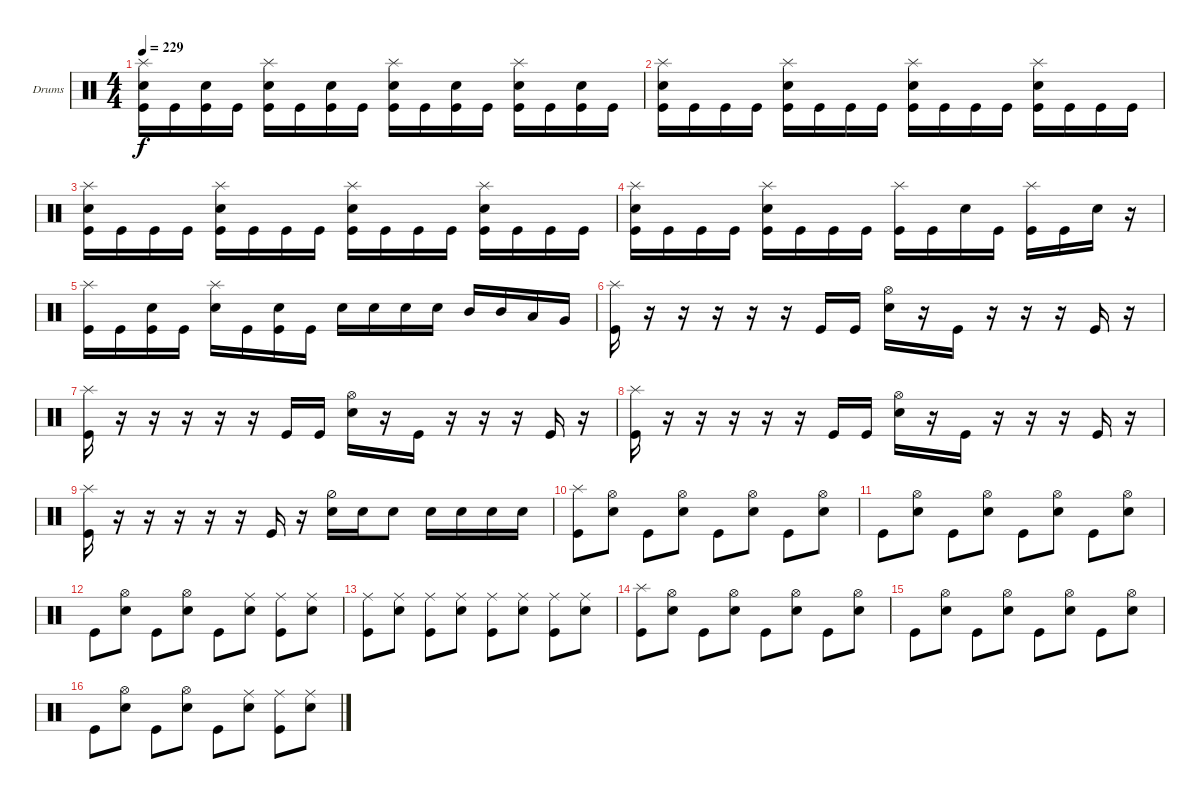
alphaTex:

\defaultSystemsLayout 4
\bracketExtendMode groupsimilarinstruments
\firstSystemTrackNameOrientation horizontal
\otherSystemsTrackNameOrientation horizontal
\track ("Drumkit" "Drums") {instrument percussion}
\staff {score}
\articulation defaults
\ts (4 4)
\tempo 229
\clef neutral
\ks c
("Snare (hit) 2" "Kick (hit)" "Splash (hit)").16{dy f} "Kick (hit)".16 ("Kick (hit)" "Snare (hit) 2").16 "Kick (hit)".16 ("Snare (hit) 2" "Kick (hit)" "Splash (hit)").16 "Kick (hit)".16 ("Kick (hit)" "Snare (hit) 2").16 "Kick (hit)".16 ("Snare (hit) 2" "Kick (hit)" "Splash (hit)").16 "Kick (hit)".16 ("Kick (hit)" "Snare (hit) 2").16 "Kick (hit)".16 ("Snare (hit) 2" "Kick (hit)" "Splash (hit)").16 "Kick (hit)".16 ("Kick (hit)" "Snare (hit) 2").16 "Kick (hit)".16 |
("Snare (hit) 2" "Kick (hit)" "Splash (hit)").16 "Kick (hit)".16 "Kick (hit)".16 "Kick (hit)".16 ("Snare (hit) 2" "Kick (hit)" "Splash (hit)").16 "Kick (hit)".16 "Kick (hit)".16 "Kick (hit)".16 ("Snare (hit) 2" "Kick (hit)" "Splash (hit)").16 "Kick (hit)".16 "Kick (hit)".16 "Kick (hit)".16 ("Snare (hit) 2" "Kick (hit)" "Splash (hit)").16 "Kick (hit)".16 "Kick (hit)".16 "Kick (hit)".16 |
("Snare (hit) 2" "Kick (hit)" "Splash (hit)").16 "Kick (hit)".16 "Kick (hit)".16 "Kick (hit)".16 ("Snare (hit) 2" "Kick (hit)" "Splash (hit)").16 "Kick (hit)".16 "Kick (hit)".16 "Kick (hit)".16 ("Snare (hit) 2" "Kick (hit)" "Splash (hit)").16 "Kick (hit)".16 "Kick (hit)".16 "Kick (hit)".16 ("Snare (hit) 2" "Kick (hit)" "Splash (hit)").16 "Kick (hit)".16 "Kick (hit)".16 "Kick (hit)".16 |
("Snare (hit) 2" "Kick (hit)" "Splash (hit)").16 "Kick (hit)".16 "Kick (hit)".16 "Kick (hit)".16 ("Snare (hit) 2" "Kick (hit)" "Splash (hit)").16 "Kick (hit)".16 "Kick (hit)".16 "Kick (hit)".16 ("Kick (hit)" "Splash (hit)").16 "Kick (hit)".16 "Snare (hit) 2".16 "Kick (hit)".16 ("Kick (hit)" "Splash (hit)").16 "Kick (hit)".16 "Snare (hit) 2".16 r.16 |
("Kick (hit)" "Splash (hit)").16 "Kick (hit)".16 ("Kick (hit)" "Snare (hit) 2").16 "Kick (hit)".16 ("Splash (hit)" "Snare (hit) 2").16 "Kick (hit)".16 ("Kick (hit)" "Snare (hit) 2").16 "Kick (hit)".16 "Snare (hit) 2".16 "Snare (hit) 2".16 "Snare (hit) 2".16 "Snare (hit) 2".16 "Mid Tom (hit)".16 "Mid Tom (hit)".16 "Low Tom (hit)".16 "Very Low Tom (hit)".16 |
("Kick (hit)" "Splash (hit)").16 r.16 r.16 r.16 r.16 r.16 "Kick (hit)".16 "Kick (hit)".16 ("Snare (hit) 2" "Hi-Hat (open)").16 r.16 "Kick (hit)".16 r.16 r.16 r.16 "Kick (hit)".16 r.16 |
("Kick (hit)" "Splash (hit)").16 r.16 r.16 r.16 r.16 r.16 "Kick (hit)".16 "Kick (hit)".16 ("Snare (hit) 2" "Hi-Hat (open)").16 r.16 "Kick (hit)".16 r.16 r.16 r.16 "Kick (hit)".16 r.16 |
("Kick (hit)" "Splash (hit)").16 r.16 r.16 r.16 r.16 r.16 "Kick (hit)".16 "Kick (hit)".16 ("Snare (hit) 2" "Hi-Hat (open)").16 r.16 "Kick (hit)".16 r.16 r.16 r.16 "Kick (hit)".16 r.16 |
("Kick (hit)" "Splash (hit)").16 r.16 r.16 r.16 r.16 r.16 "Kick (hit)".16 r.16 ("Snare (hit) 2" "Hi-Hat (half)").16 "Snare (hit) 2".16 "Snare (hit) 2".8 "Snare (hit) 2".16 "Snare (hit) 2".16 "Snare (hit) 2".16 "Snare (hit) 2".16 |
("Kick (hit)" "Splash (hit)").8 ("Snare (hit) 2" "Hi-Hat (open)").8 "Kick (hit)".8 ("Snare (hit) 2" "Hi-Hat (open)").8 "Kick (hit)".8 ("Snare (hit) 2" "Hi-Hat (open)").8 "Kick (hit)".8 ("Snare (hit) 2" "Hi-Hat (open)").8 |
"Kick (hit)".8 ("Snare (hit) 2" "Hi-Hat (open)").8 "Kick (hit)".8 ("Snare (hit) 2" "Hi-Hat (open)").8 "Kick (hit)".8 ("Snare (hit) 2" "Hi-Hat (open)").8 "Kick (hit)".8 ("Snare (hit) 2" "Hi-Hat (open)").8 |
"Kick (hit)".8 ("Snare (hit) 2" "Hi-Hat (open)").8 "Kick (hit)".8 ("Snare (hit) 2" "Hi-Hat (open)").8 "Kick (hit)".8 ("Snare (hit) 2" "Ride (middle)").8 ("Kick (hit)" "Ride (middle)").8 ("Snare (hit) 2" "Ride (middle)").8 |
("Kick (hit)" "Ride (middle)").8 ("Snare (hit) 2" "Ride (middle)").8 ("Kick (hit)" "Ride (middle)").8 ("Snare (hit) 2" "Ride (middle)").8 ("Kick (hit)" "Ride (middle)").8 ("Snare (hit) 2" "Ride (middle)").8 ("Kick (hit)" "Ride (middle)").8 ("Snare (hit) 2" "Ride (middle)").8 |
("Kick (hit)" "Splash (hit)").8 ("Snare (hit) 2" "Hi-Hat (open)").8 "Kick (hit)".8 ("Snare (hit) 2" "Hi-Hat (open)").8 "Kick (hit)".8 ("Snare (hit) 2" "Hi-Hat (open)").8 "Kick (hit)".8 ("Snare (hit) 2" "Hi-Hat (open)").8 |
"Kick (hit)".8 ("Snare (hit) 2" "Hi-Hat (open)").8 "Kick (hit)".8 ("Snare (hit) 2" "Hi-Hat (open)").8 "Kick (hit)".8 ("Snare (hit) 2" "Hi-Hat (open)").8 "Kick (hit)".8 ("Snare (hit) 2" "Hi-Hat (open)").8 |
"Kick (hit)".8 ("Snare (hit) 2" "Hi-Hat (open)").8 "Kick (hit)".8 ("Snare (hit) 2" "Hi-Hat (open)").8 "Kick (hit)".8 ("Snare (hit) 2" "Ride (middle)").8 ("Kick (hit)" "Ride (middle)").8 ("Snare (hit) 2" "Ride (middle)").8
